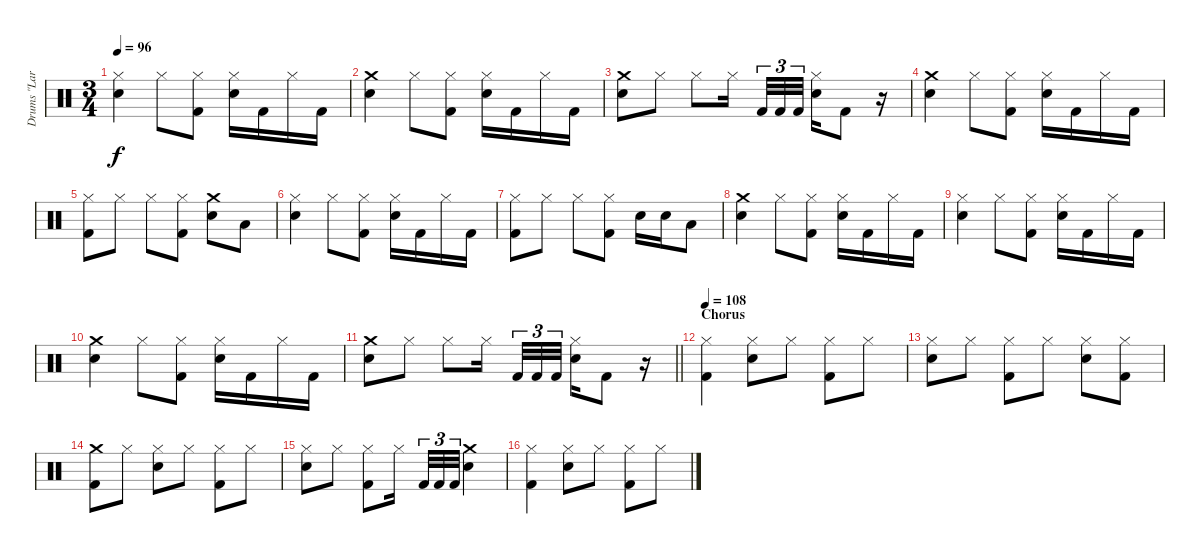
\track ("Drums \"Lars Ulrich\"" "Drums \"Lar") {instrument percussion}
\staff {score}
\articulation defaults
\ts (3 4)
\tempo 96
\clef neutral
\ks c
("Hi-Hat (closed)" "Electric Snare (hit)").4{dy f} "Hi-Hat (closed)".8 ("Hi-Hat (closed)" "Kick (hit) 2").8 ("Hi-Hat (closed)" "Electric Snare (hit)").16 "Kick (hit) 2".16 "Hi-Hat (closed)".16 "Kick (hit) 2".16 |
("Crash medium (hit)" "Electric Snare (hit)").4 "Hi-Hat (closed)".8 ("Hi-Hat (closed)" "Kick (hit) 2").8 ("Hi-Hat (closed)" "Electric Snare (hit)").16 "Kick (hit) 2".16 "Hi-Hat (closed)".16 "Kick (hit) 2".16 |
("Crash medium (hit)" "Electric Snare (hit)").8 "Hi-Hat (closed)".8 "Hi-Hat (closed)".8 "Hi-Hat (closed)".16{beam splitsecondary} "Kick (hit) 2".32{tu (3 2)} "Kick (hit) 2".32{tu (3 2)} "Kick (hit) 2".32{tu (3 2)} ("Hi-Hat (closed)" "Electric Snare (hit)").16 "Kick (hit) 2".8 r.16 |
("Crash medium (hit)" "Electric Snare (hit)").4 "Hi-Hat (closed)".8 ("Hi-Hat (closed)" "Kick (hit) 2").8 ("Hi-Hat (closed)" "Electric Snare (hit)").16 "Kick (hit) 2".16 "Hi-Hat (closed)".16 "Kick (hit) 2".16 |
("Hi-Hat (closed)" "Kick (hit) 2").8 "Hi-Hat (closed)".8 "Hi-Hat (closed)".8 ("Hi-Hat (closed)" "Kick (hit) 2").8 ("Crash medium (hit)" "Electric Snare (hit)").8 "Low Tom (hit)".8 |
("Hi-Hat (closed)" "Electric Snare (hit)").4 "Hi-Hat (closed)".8 ("Hi-Hat (closed)" "Kick (hit) 2").8 ("Hi-Hat (closed)" "Electric Snare (hit)").16 "Kick (hit) 2".16 "Hi-Hat (closed)".16 "Kick (hit) 2".16 |
("Hi-Hat (closed)" "Kick (hit) 2").8 "Hi-Hat (closed)".8 "Hi-Hat (closed)".8 ("Hi-Hat (closed)" "Kick (hit) 2").8 "Electric Snare (hit)".16 "Electric Snare (hit)".16 "Low Tom (hit)".8 |
("Crash medium (hit)" "Electric Snare (hit)").4 "Hi-Hat (closed)".8 ("Hi-Hat (closed)" "Kick (hit) 2").8 ("Hi-Hat (closed)" "Electric Snare (hit)").16 "Kick (hit) 2".16 "Hi-Hat (closed)".16 "Kick (hit) 2".16 |
("Hi-Hat (closed)" "Electric Snare (hit)").4 "Hi-Hat (closed)".8 ("Hi-Hat (closed)" "Kick (hit) 2").8 ("Hi-Hat (closed)" "Electric Snare (hit)").16 "Kick (hit) 2".16 "Hi-Hat (closed)".16 "Kick (hit) 2".16 |
("Crash medium (hit)" "Electric Snare (hit)").4 "Hi-Hat (closed)".8 ("Hi-Hat (closed)" "Kick (hit) 2").8 ("Hi-Hat (closed)" "Electric Snare (hit)").16 "Kick (hit) 2".16 "Hi-Hat (closed)".16 "Kick (hit) 2".16 |
\barLineRight lightlight
("Crash medium (hit)" "Electric Snare (hit)").8 "Hi-Hat (closed)".8 "Hi-Hat (closed)".8 "Hi-Hat (closed)".16{beam splitsecondary} "Kick (hit) 2".32{tu (3 2)} "Kick (hit) 2".32{tu (3 2)} "Kick (hit) 2".32{tu (3 2)} ("Hi-Hat (closed)" "Electric Snare (hit)").16 "Kick (hit) 2".8 r.16 |
\section ("" "Chorus")
\tempo 108
("Hi-Hat (closed)" "Kick (hit) 2").4 ("Hi-Hat (closed)" "Electric Snare (hit)").8 "Hi-Hat (closed)".8 ("Hi-Hat (closed)" "Kick (hit) 2").8 "Hi-Hat (closed)".8 |
("Hi-Hat (closed)" "Electric Snare (hit)").8 "Hi-Hat (closed)".8 ("Hi-Hat (closed)" "Kick (hit) 2").8 "Hi-Hat (closed)".8 ("Hi-Hat (closed)" "Electric Snare (hit)").8 ("Hi-Hat (closed)" "Kick (hit) 2").8 |
("Crash medium (hit)" "Kick (hit) 2").8 "Hi-Hat (closed)".8 ("Hi-Hat (closed)" "Electric Snare (hit)").8 "Hi-Hat (closed)".8 ("Hi-Hat (closed)" "Kick (hit) 2").8 "Hi-Hat (closed)".8 |
("Hi-Hat (closed)" "Electric Snare (hit)").8 "Hi-Hat (closed)".8 ("Hi-Hat (closed)" "Kick (hit) 2").8 "Hi-Hat (closed)".16{beam splitsecondary} "Kick (hit) 2".32{tu (3 2)} "Kick (hit) 2".32{tu (3 2)} "Kick (hit) 2".32{tu (3 2)} ("Crash medium (hit)" "Electric Snare (hit)").4 |
("Hi-Hat (closed)" "Kick (hit) 2").4 ("Hi-Hat (closed)" "Electric Snare (hit)").8 "Hi-Hat (closed)".8 ("Hi-Hat (closed)" "Kick (hit) 2").8 "Hi-Hat (closed)".8
